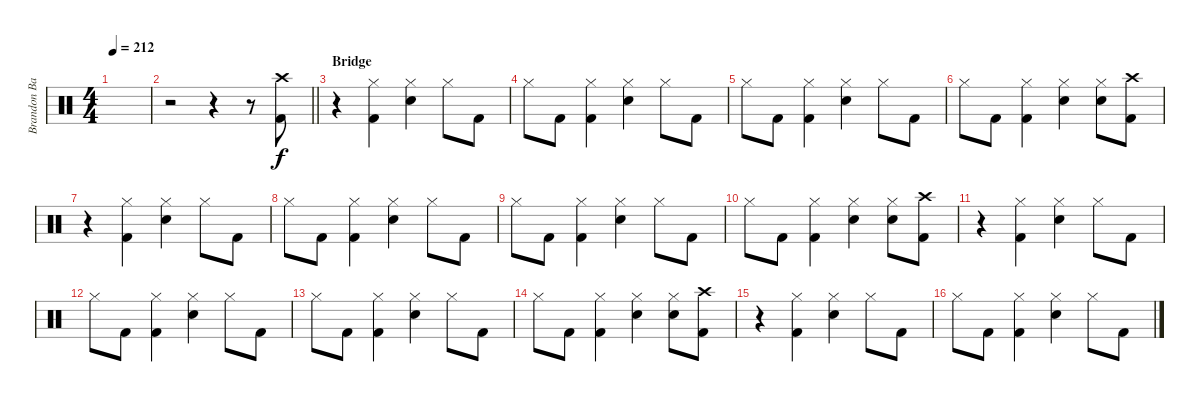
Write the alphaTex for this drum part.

\track ("Brandon Barnes - Drums" "Brandon Ba") {instrument percussion}
\staff {score}
\articulation defaults
\ts (4 4)
\tempo 212
\clef neutral
\ks c
|
\barLineRight lightlight
r.2 r.4 r.8 ("Crash high (hit)" "Kick (hit) 2").8 |
\section ("" "Bridge")
r.4 ("Kick (hit) 2" "Hi-Hat (closed)").4 ("Snare (hit) 2" "Hi-Hat (closed)").4 "Hi-Hat (closed)".8 "Kick (hit) 2".8 |
"Hi-Hat (closed)".8 "Kick (hit) 2".8 ("Kick (hit) 2" "Hi-Hat (closed)").4 ("Hi-Hat (closed)" "Snare (hit) 2").4 "Hi-Hat (closed)".8 "Kick (hit) 2".8 |
"Hi-Hat (closed)".8 "Kick (hit) 2".8 ("Kick (hit) 2" "Hi-Hat (closed)").4 ("Hi-Hat (closed)" "Snare (hit) 2").4 "Hi-Hat (closed)".8 "Kick (hit) 2".8 |
"Hi-Hat (closed)".8 "Kick (hit) 2".8 ("Kick (hit) 2" "Hi-Hat (closed)").4 ("Hi-Hat (closed)" "Snare (hit) 2").4 ("Hi-Hat (closed)" "Snare (hit) 2").8 ("Crash high (hit)" "Kick (hit) 2").8 |
r.4 ("Kick (hit) 2" "Hi-Hat (closed)").4 ("Snare (hit) 2" "Hi-Hat (closed)").4 "Hi-Hat (closed)".8 "Kick (hit) 2".8 |
"Hi-Hat (closed)".8 "Kick (hit) 2".8 ("Kick (hit) 2" "Hi-Hat (closed)").4 ("Hi-Hat (closed)" "Snare (hit) 2").4 "Hi-Hat (closed)".8 "Kick (hit) 2".8 |
"Hi-Hat (closed)".8 "Kick (hit) 2".8 ("Kick (hit) 2" "Hi-Hat (closed)").4 ("Hi-Hat (closed)" "Snare (hit) 2").4 "Hi-Hat (closed)".8 "Kick (hit) 2".8 |
"Hi-Hat (closed)".8 "Kick (hit) 2".8 ("Kick (hit) 2" "Hi-Hat (closed)").4 ("Hi-Hat (closed)" "Snare (hit) 2").4 ("Hi-Hat (closed)" "Snare (hit) 2").8 ("Crash high (hit)" "Kick (hit) 2").8 |
r.4 ("Kick (hit) 2" "Hi-Hat (closed)").4 ("Snare (hit) 2" "Hi-Hat (closed)").4 "Hi-Hat (closed)".8 "Kick (hit) 2".8 |
"Hi-Hat (closed)".8 "Kick (hit) 2".8 ("Kick (hit) 2" "Hi-Hat (closed)").4 ("Hi-Hat (closed)" "Snare (hit) 2").4 "Hi-Hat (closed)".8 "Kick (hit) 2".8 |
"Hi-Hat (closed)".8 "Kick (hit) 2".8 ("Kick (hit) 2" "Hi-Hat (closed)").4 ("Hi-Hat (closed)" "Snare (hit) 2").4 "Hi-Hat (closed)".8 "Kick (hit) 2".8 |
"Hi-Hat (closed)".8 "Kick (hit) 2".8 ("Kick (hit) 2" "Hi-Hat (closed)").4 ("Hi-Hat (closed)" "Snare (hit) 2").4 ("Hi-Hat (closed)" "Snare (hit) 2").8 ("Crash high (hit)" "Kick (hit) 2").8 |
r.4 ("Kick (hit) 2" "Hi-Hat (closed)").4 ("Snare (hit) 2" "Hi-Hat (closed)").4 "Hi-Hat (closed)".8 "Kick (hit) 2".8 |
"Hi-Hat (closed)".8 "Kick (hit) 2".8 ("Kick (hit) 2" "Hi-Hat (closed)").4 ("Hi-Hat (closed)" "Snare (hit) 2").4 "Hi-Hat (closed)".8 "Kick (hit) 2".8
